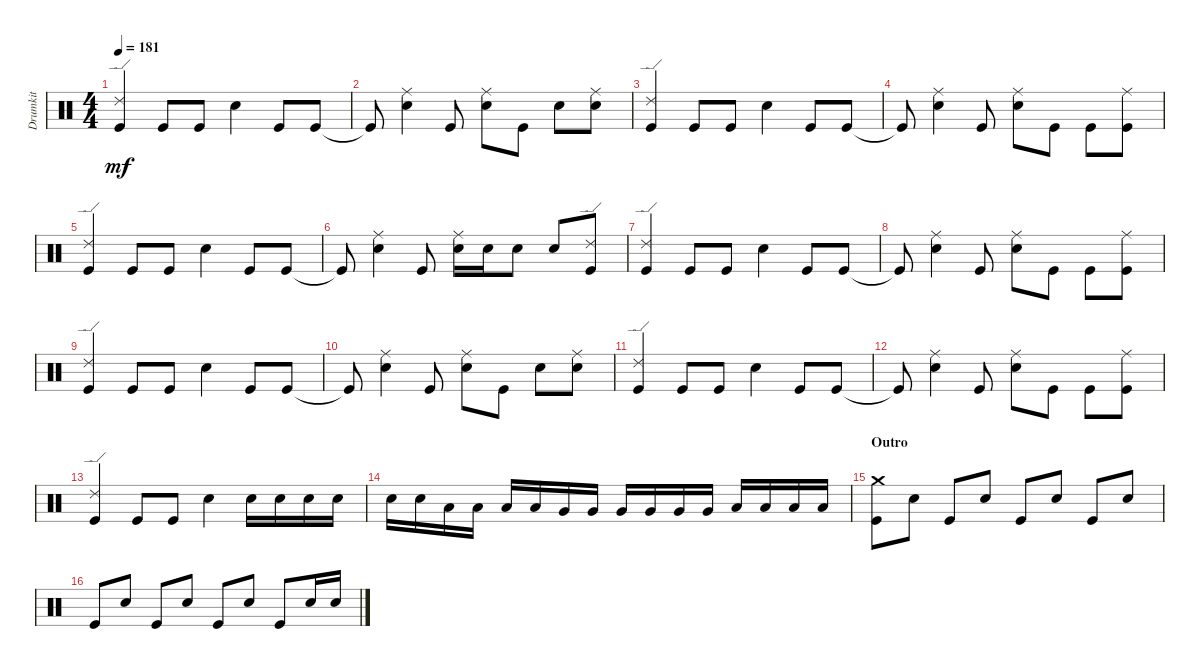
\track ("Drumkit" "Drumkit") {instrument percussion}
\staff {score}
\articulation defaults
\ts (4 4)
\tempo 181
\clef neutral
\ks c
("Kick (hit)" "Ride (edge) 2").4{dy mf} "Kick (hit)".8 "Kick (hit)".8 "Snare (hit) 2".4 "Kick (hit)".8 "Kick (hit)".8 |
"Kick (hit)"{t}.8 ("Snare (hit) 2" "Ride (middle)").4 "Kick (hit)".8 ("Snare (hit) 2" "Ride (middle)").8 "Kick (hit)".8 "Snare (hit) 2".8 ("Snare (hit) 2" "Ride (middle)").8 |
("Kick (hit)" "Ride (edge) 2").4 "Kick (hit)".8 "Kick (hit)".8 "Snare (hit) 2".4 "Kick (hit)".8 "Kick (hit)".8 |
"Kick (hit)"{t}.8 ("Snare (hit) 2" "Ride (middle)").4 "Kick (hit)".8 ("Snare (hit) 2" "Ride (middle)").8 "Kick (hit)".8 "Kick (hit)".8 ("Ride (middle)" "Kick (hit)").8 |
("Kick (hit)" "Ride (edge) 2").4 "Kick (hit)".8 "Kick (hit)".8 "Snare (hit) 2".4 "Kick (hit)".8 "Kick (hit)".8 |
"Kick (hit)"{t}.8 ("Snare (hit) 2" "Ride (middle)").4 "Kick (hit)".8 ("Snare (hit) 2" "Ride (middle)").16 "Snare (hit) 2".16 "Snare (hit) 2".8 "Snare (hit) 2".8 ("Kick (hit)" "Ride (edge) 2").8 |
("Kick (hit)" "Ride (edge) 2").4 "Kick (hit)".8 "Kick (hit)".8 "Snare (hit) 2".4 "Kick (hit)".8 "Kick (hit)".8 |
"Kick (hit)"{t}.8 ("Snare (hit) 2" "Ride (middle)").4 "Kick (hit)".8 ("Snare (hit) 2" "Ride (middle)").8 "Kick (hit)".8 "Kick (hit)".8 ("Ride (middle)" "Kick (hit)").8 |
("Kick (hit)" "Ride (edge) 2").4 "Kick (hit)".8 "Kick (hit)".8 "Snare (hit) 2".4 "Kick (hit)".8 "Kick (hit)".8 |
"Kick (hit)"{t}.8 ("Snare (hit) 2" "Ride (middle)").4 "Kick (hit)".8 ("Snare (hit) 2" "Ride (middle)").8 "Kick (hit)".8 "Snare (hit) 2".8 ("Snare (hit) 2" "Ride (middle)").8 |
("Kick (hit)" "Ride (edge) 2").4 "Kick (hit)".8 "Kick (hit)".8 "Snare (hit) 2".4 "Kick (hit)".8 "Kick (hit)".8 |
"Kick (hit)"{t}.8 ("Snare (hit) 2" "Ride (middle)").4 "Kick (hit)".8 ("Snare (hit) 2" "Ride (middle)").8 "Kick (hit)".8 "Kick (hit)".8 ("Ride (middle)" "Kick (hit)").8 |
("Kick (hit)" "Ride (edge) 2").4 "Kick (hit)".8 "Kick (hit)".8 "Snare (hit) 2".4 "Snare (hit) 2".16 "Snare (hit) 2".16 "Snare (hit) 2".16 "Snare (hit) 2".16 |
"Snare (hit) 2".16 "Snare (hit) 2".16 "Low Tom (hit)".16 "Low Tom (hit)".16 "Low Tom (hit)".16 "Low Tom (hit)".16 "Very Low Tom (hit)".16 "Very Low Tom (hit)".16 "Very Low Tom (hit)".16 "Very Low Tom (hit)".16 "Very Low Tom (hit)".16 "Very Low Tom (hit)".16 "Low Floor Tom (hit)".16 "Low Floor Tom (hit)".16 "Low Floor Tom (hit)".16 "Low Floor Tom (hit)".16 |
\section ("" "Outro")
("Kick (hit)" "Crash medium (hit)").8 "Snare (hit) 2".8 "Kick (hit)".8 "Snare (hit) 2".8 "Kick (hit)".8 "Snare (hit) 2".8 "Kick (hit)".8 "Snare (hit) 2".8 |
"Kick (hit)".8 "Snare (hit) 2".8 "Kick (hit)".8 "Snare (hit) 2".8 "Kick (hit)".8 "Snare (hit) 2".8 "Kick (hit)".8 "Snare (hit) 2".16 "Snare (hit) 2".16
